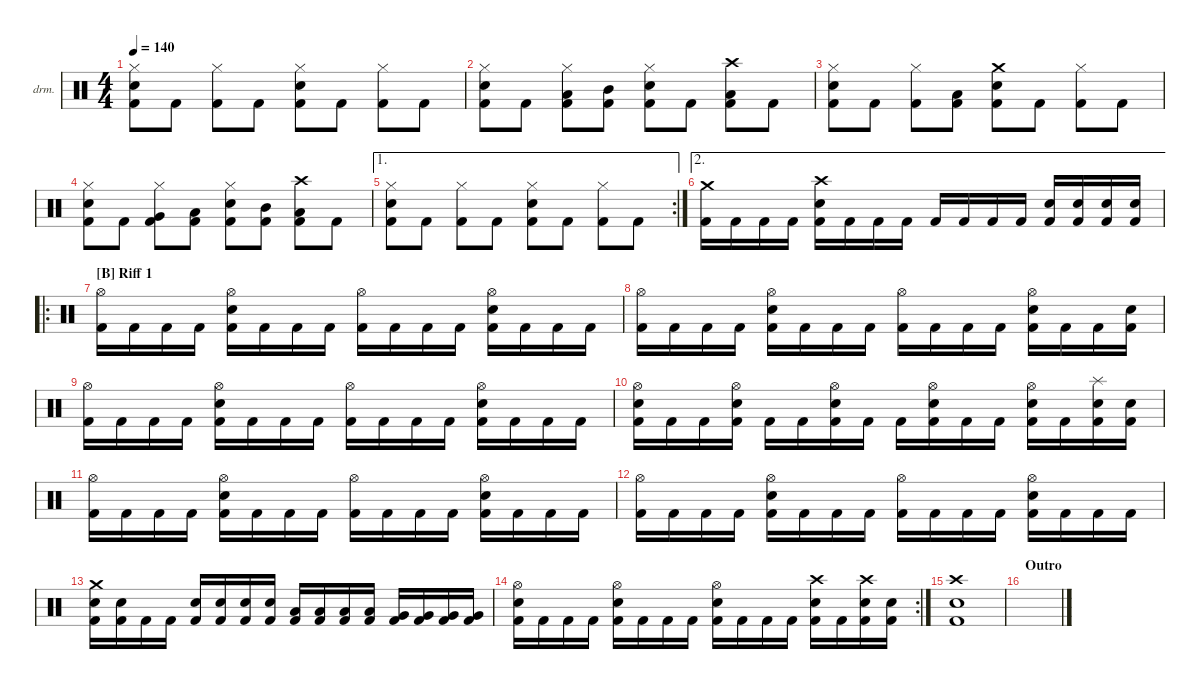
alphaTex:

\defaultSystemsLayout 4
\hideDynamics
\bracketExtendMode nobrackets
\firstSystemTrackNameOrientation horizontal
\otherSystemsTrackNameOrientation horizontal
\track ("Drumkit" "drm.") {instrument percussion}
\staff {score}
\articulation defaults
\ts (4 4)
\tempo 140
\clef neutral
\ks c
("Hi-Hat (closed)" "Kick (hit) 2" "Snare (hit) 2").8{dy mf} "Kick (hit) 2".8 ("Kick (hit) 2" "Hi-Hat (closed)").8 "Kick (hit) 2".8 ("Kick (hit) 2" "Hi-Hat (closed)" "Snare (hit) 2").8 "Kick (hit) 2".8 ("Kick (hit) 2" "Hi-Hat (closed)").8 "Kick (hit) 2".8 |
("Hi-Hat (closed)" "Kick (hit) 2" "Snare (hit) 2").8 "Kick (hit) 2".8 ("Kick (hit) 2" "Hi-Hat (closed)" "Low Tom (hit)").8 ("Kick (hit) 2" "Mid Tom (hit)").8 ("Kick (hit) 2" "Hi-Hat (closed)" "Snare (hit) 2").8 "Kick (hit) 2".8 ("Kick (hit) 2" "Crash high (hit)" "Low Tom (hit)").8 "Kick (hit) 2".8 |
("Hi-Hat (closed)" "Kick (hit) 2" "Snare (hit) 2").8 "Kick (hit) 2".8 ("Kick (hit) 2" "Hi-Hat (closed)").8 ("Kick (hit) 2" "Low Tom (hit)").8 ("Kick (hit) 2" "Snare (hit) 2" "Crash medium (hit)").8 "Kick (hit) 2".8 ("Kick (hit) 2" "Hi-Hat (closed)").8 "Kick (hit) 2".8 |
("Hi-Hat (closed)" "Kick (hit) 2" "Snare (hit) 2").8 "Kick (hit) 2".8 ("Kick (hit) 2" "Hi-Hat (closed)" "Very Low Tom (hit)").8 ("Kick (hit) 2" "Low Tom (hit)").8 ("Kick (hit) 2" "Snare (hit) 2" "Hi-Hat (closed)").8 ("Kick (hit) 2" "Mid Tom (hit)").8 ("Kick (hit) 2" "Low Tom (hit)" "Crash high (hit)").8 "Kick (hit) 2".8 |
\ae 1
\rc 2
("Kick (hit) 2" "Snare (hit) 2" "Hi-Hat (closed)").8 "Kick (hit) 2".8 ("Kick (hit) 2" "Hi-Hat (closed)").8 "Kick (hit) 2".8 ("Kick (hit) 2" "Snare (hit) 2" "Hi-Hat (closed)").8 "Kick (hit) 2".8 ("Kick (hit) 2" "Hi-Hat (closed)").8 "Kick (hit) 2".8 |
\ae 2
("Crash medium (hit)" "Kick (hit) 2").16{dy f} "Kick (hit) 2".16 "Kick (hit) 2".16 "Kick (hit) 2".16 ("Crash high (hit)" "Snare (hit) 2" "Kick (hit) 2").16 "Kick (hit) 2".16 "Kick (hit) 2".16 "Kick (hit) 2".16 "Kick (hit) 2".16 "Kick (hit) 2".16 "Kick (hit) 2".16 "Kick (hit) 2".16 ("Snare (hit) 2" "Kick (hit) 2").16 ("Snare (hit) 2" "Kick (hit) 2").16 ("Snare (hit) 2" "Kick (hit) 2").16 ("Snare (hit) 2" "Kick (hit) 2").16 |
\ro
\section ("B" "Riff 1")
("Hi-Hat (open)" "Kick (hit) 2").16{dy ff} "Kick (hit) 2".16 "Kick (hit) 2".16 "Kick (hit) 2".16 ("Hi-Hat (open)" "Snare (hit) 2" "Kick (hit) 2").16 "Kick (hit) 2".16 "Kick (hit) 2".16 "Kick (hit) 2".16 ("Hi-Hat (open)" "Kick (hit) 2").16 "Kick (hit) 2".16 "Kick (hit) 2".16 "Kick (hit) 2".16 ("Hi-Hat (open)" "Snare (hit) 2" "Kick (hit) 2").16 "Kick (hit) 2".16 "Kick (hit) 2".16 "Kick (hit) 2".16 |
("Hi-Hat (open)" "Kick (hit) 2").16 "Kick (hit) 2".16 "Kick (hit) 2".16 "Kick (hit) 2".16 ("Hi-Hat (open)" "Snare (hit) 2" "Kick (hit) 2").16 "Kick (hit) 2".16 "Kick (hit) 2".16 "Kick (hit) 2".16 ("Hi-Hat (open)" "Kick (hit) 2").16 "Kick (hit) 2".16 "Kick (hit) 2".16 "Kick (hit) 2".16 ("Hi-Hat (open)" "Snare (hit) 2" "Kick (hit) 2").16 "Kick (hit) 2".16 "Kick (hit) 2".16 ("Snare (hit) 2" "Kick (hit) 2").16 |
("Hi-Hat (open)" "Kick (hit) 2").16 "Kick (hit) 2".16 "Kick (hit) 2".16 "Kick (hit) 2".16 ("Hi-Hat (open)" "Snare (hit) 2" "Kick (hit) 2").16 "Kick (hit) 2".16 "Kick (hit) 2".16 "Kick (hit) 2".16 ("Hi-Hat (open)" "Kick (hit) 2").16 "Kick (hit) 2".16 "Kick (hit) 2".16 "Kick (hit) 2".16 ("Hi-Hat (open)" "Snare (hit) 2" "Kick (hit) 2").16 "Kick (hit) 2".16 "Kick (hit) 2".16 "Kick (hit) 2".16 |
("Hi-Hat (open)" "Snare (hit) 2" "Kick (hit) 2").16 "Kick (hit) 2".16 "Kick (hit) 2".16 ("Hi-Hat (open)" "Snare (hit) 2" "Kick (hit) 2").16 "Kick (hit) 2".16 "Kick (hit) 2".16 ("Hi-Hat (open)" "Snare (hit) 2" "Kick (hit) 2").16 "Kick (hit) 2".16 "Kick (hit) 2".16 ("Hi-Hat (open)" "Snare (hit) 2" "Kick (hit) 2").16 "Kick (hit) 2".16 "Kick (hit) 2".16 ("Hi-Hat (open)" "Snare (hit) 2" "Kick (hit) 2").16 "Kick (hit) 2".16 ("Splash (hit)" "Snare (hit) 2" "Kick (hit) 2").16 ("Snare (hit) 2" "Kick (hit) 2").16 |
("Hi-Hat (open)" "Kick (hit) 2").16 "Kick (hit) 2".16 "Kick (hit) 2".16 "Kick (hit) 2".16 ("Hi-Hat (open)" "Snare (hit) 2" "Kick (hit) 2").16 "Kick (hit) 2".16 "Kick (hit) 2".16 "Kick (hit) 2".16 ("Hi-Hat (open)" "Kick (hit) 2").16 "Kick (hit) 2".16 "Kick (hit) 2".16 "Kick (hit) 2".16 ("Hi-Hat (open)" "Snare (hit) 2" "Kick (hit) 2").16 "Kick (hit) 2".16 "Kick (hit) 2".16 "Kick (hit) 2".16 |
("Hi-Hat (open)" "Kick (hit) 2").16 "Kick (hit) 2".16 "Kick (hit) 2".16 "Kick (hit) 2".16 ("Hi-Hat (open)" "Snare (hit) 2" "Kick (hit) 2").16 "Kick (hit) 2".16 "Kick (hit) 2".16 "Kick (hit) 2".16 ("Hi-Hat (open)" "Kick (hit) 2").16 "Kick (hit) 2".16 "Kick (hit) 2".16 "Kick (hit) 2".16 ("Hi-Hat (open)" "Snare (hit) 2" "Kick (hit) 2").16 "Kick (hit) 2".16 "Kick (hit) 2".16 "Kick (hit) 2".16 |
("Crash medium (hit)" "Snare (hit) 2" "Kick (hit) 2").16{dy mf} ("Snare (hit) 2" "Kick (hit) 2").16 "Kick (hit) 2".16 "Kick (hit) 2".16 ("Snare (hit) 2" "Kick (hit) 2").16 ("Snare (hit) 2" "Kick (hit) 2").16 ("Snare (hit) 2" "Kick (hit) 2").16 ("Snare (hit) 2" "Kick (hit) 2").16 ("Low Tom (hit)" "Kick (hit) 2").16 ("Low Tom (hit)" "Kick (hit) 2").16 ("Low Tom (hit)" "Kick (hit) 2").16 ("Low Tom (hit)" "Kick (hit) 2").16 ("Very Low Tom (hit)" "Kick (hit) 2").16 ("Very Low Tom (hit)" "Kick (hit) 2").16 ("Very Low Tom (hit)" "Kick (hit) 2").16 ("Very Low Tom (hit)" "Kick (hit) 2").16 |
\rc 2
("Hi-Hat (open)" "Snare (hit) 2" "Kick (hit) 2").16 "Kick (hit) 2".16 "Kick (hit) 2".16 "Kick (hit) 2".16 ("Hi-Hat (open)" "Snare (hit) 2" "Kick (hit) 2").16 "Kick (hit) 2".16 "Kick (hit) 2".16 "Kick (hit) 2".16 ("Hi-Hat (open)" "Snare (hit) 2" "Kick (hit) 2").16 "Kick (hit) 2".16 "Kick (hit) 2".16 "Kick (hit) 2".16 ("Crash high (hit)" "Snare (hit) 2" "Kick (hit) 2").16 "Kick (hit) 2".16 ("Crash high (hit)" "Snare (hit) 2" "Kick (hit) 2").16 ("Snare (hit) 2" "Kick (hit) 2").16 |
("Crash high (hit)" "Kick (hit) 2" "Snare (hit) 2").1 |
\section ("" "Outro")
